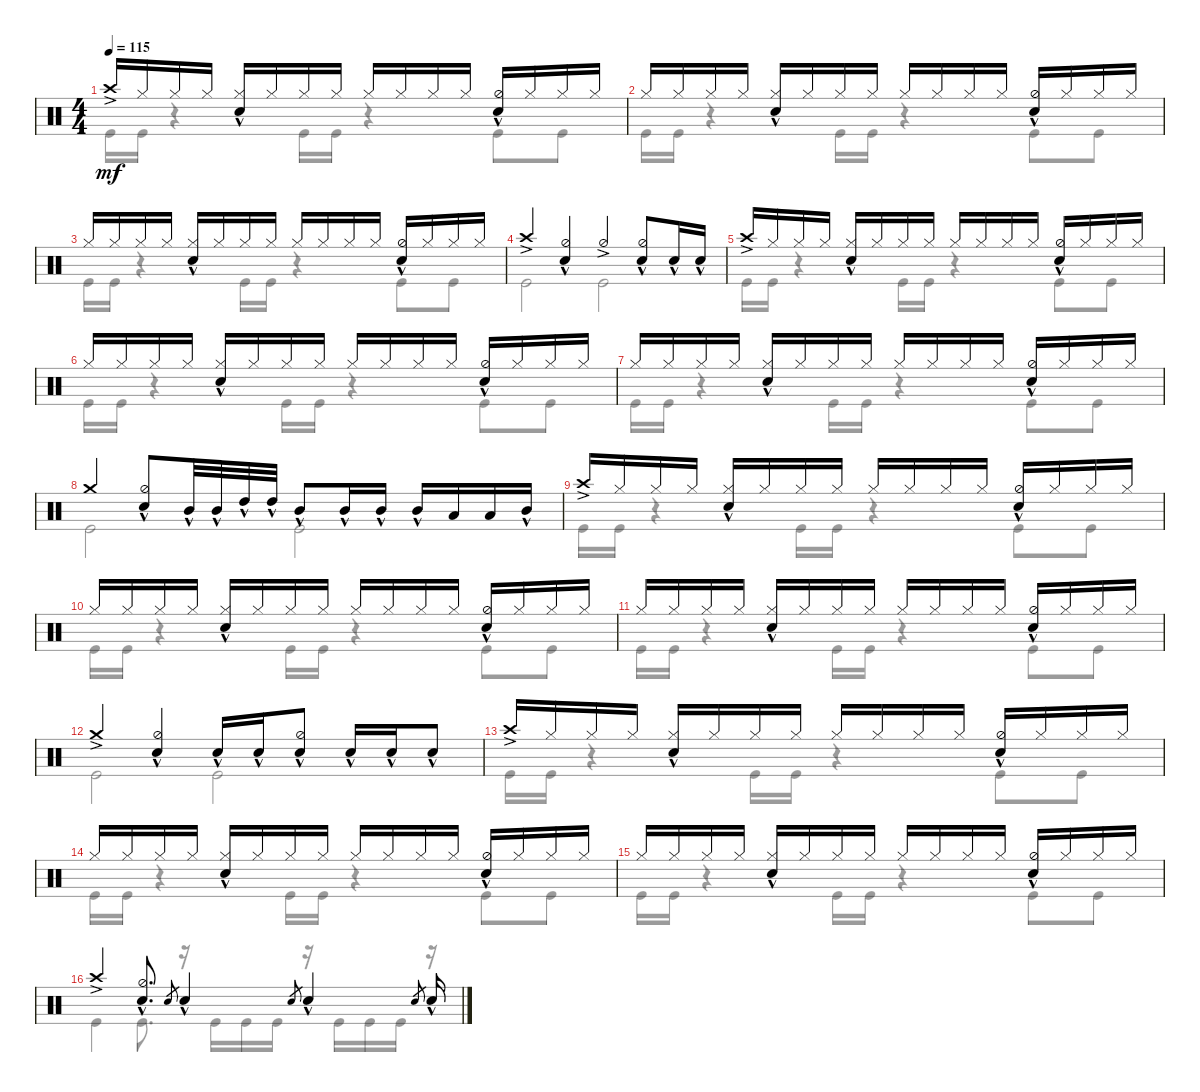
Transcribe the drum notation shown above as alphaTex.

\defaultSystemsLayout 4
\bracketExtendMode groupsimilarinstruments
\singleTrackTrackNamePolicy hidden
\multiTrackTrackNamePolicy hidden
\firstSystemTrackNameOrientation horizontal
\otherSystemsTrackNameOrientation horizontal
\track ("Maksim Udalov" "Drums") {instrument percussion}
\staff {score}
\articulation defaults
\voice
\ts (4 4)
\tempo 115
\clef neutral
\scale
1.02648
\ks c "Crash high (hit)"{ac}.16{dy mf} "Hi-Hat (closed)".16 "Hi-Hat (closed)".16 "Hi-Hat (closed)".16
("Hi-Hat (closed)" "Snare (hit) 2"{hac}).16 "Hi-Hat (closed)".16 "Hi-Hat (closed)".16 "Hi-Hat (closed)".16 "Hi-Hat (closed)".16 "Hi-Hat (closed)".16 "Hi-Hat (closed)".16 "Hi-Hat (closed)".16 ("Snare (hit) 2"{hac} "Hi-Hat (half)").16 "Hi-Hat (closed)".16 "Hi-Hat (closed)".16 "Hi-Hat (closed)".16 |
\scale
0.973518 "Hi-Hat (closed)".16 "Hi-Hat (closed)".16 "Hi-Hat (closed)".16 "Hi-Hat (closed)".16 ("Hi-Hat (closed)" "Snare (hit) 2"{hac}).16 "Hi-Hat (closed)".16 "Hi-Hat (closed)".16 "Hi-Hat (closed)".16 "Hi-Hat (closed)".16 "Hi-Hat (closed)".16 "Hi-Hat (closed)".16 "Hi-Hat (closed)".16 ("Snare (hit) 2"{hac} "Hi-Hat (half)").16 "Hi-Hat (closed)".16 "Hi-Hat (closed)".16 "Hi-Hat (closed)".16 |
\scale
1.02648 "Hi-Hat (closed)".16 "Hi-Hat (closed)".16 "Hi-Hat (closed)".16 "Hi-Hat (closed)".16 ("Hi-Hat (closed)" "Snare (hit) 2"{hac}).16 "Hi-Hat (closed)".16 "Hi-Hat (closed)".16 "Hi-Hat (closed)".16 "Hi-Hat (closed)".16 "Hi-Hat (closed)".16 "Hi-Hat (closed)".16 "Hi-Hat (closed)".16 ("Snare (hit) 2"{hac} "Hi-Hat (half)").16 "Hi-Hat (closed)".16 "Hi-Hat (closed)".16 "Hi-Hat (closed)".16 |
\scale
0.973518 "Crash high (hit)"{ac}.4 ("Snare (hit) 2"{hac} "Hi-Hat (half)").4 "Hi-Hat (half)"{ac}.4 ("Snare (hit) 2"{hac} "Hi-Hat (half)").8 "Snare (hit) 2"{hac}.16 "Snare (hit) 2"{hac}.16 |
\scale
1.02648 "Crash high (hit)"{ac}.16 "Hi-Hat (closed)".16 "Hi-Hat (closed)".16 "Hi-Hat (closed)".16 ("Hi-Hat (closed)" "Snare (hit) 2"{hac}).16 "Hi-Hat (closed)".16 "Hi-Hat (closed)".16 "Hi-Hat (closed)".16 "Hi-Hat (closed)".16 "Hi-Hat (closed)".16 "Hi-Hat (closed)".16 "Hi-Hat (closed)".16 ("Snare (hit) 2"{hac} "Hi-Hat (half)").16 "Hi-Hat (closed)".16 "Hi-Hat (closed)".16 "Hi-Hat (closed)".16 |
\scale
0.973518 "Hi-Hat (closed)".16 "Hi-Hat (closed)".16 "Hi-Hat (closed)".16 "Hi-Hat (closed)".16 ("Hi-Hat (closed)" "Snare (hit) 2"{hac}).16 "Hi-Hat (closed)".16 "Hi-Hat (closed)".16 "Hi-Hat (closed)".16 "Hi-Hat (closed)".16 "Hi-Hat (closed)".16 "Hi-Hat (closed)".16 "Hi-Hat (closed)".16 ("Snare (hit) 2"{hac} "Hi-Hat (half)").16 "Hi-Hat (closed)".16 "Hi-Hat (closed)".16 "Hi-Hat (closed)".16 |
\scale
1.02648 "Hi-Hat (closed)".16 "Hi-Hat (closed)".16 "Hi-Hat (closed)".16 "Hi-Hat (closed)".16 ("Hi-Hat (closed)" "Snare (hit) 2"{hac}).16 "Hi-Hat (closed)".16 "Hi-Hat (closed)".16 "Hi-Hat (closed)".16 "Hi-Hat (closed)".16 "Hi-Hat (closed)".16 "Hi-Hat (closed)".16 "Hi-Hat (closed)".16 ("Snare (hit) 2"{hac} "Hi-Hat (half)").16 "Hi-Hat (closed)".16 "Hi-Hat (closed)".16 "Hi-Hat (closed)".16 |
\scale
0.973518 "Crash medium (hit)".4 ("Hi-Hat (half)" "Snare (hit) 2"{hac}).8 "Mid Tom (hit)"{hac}.32 "Mid Tom (hit)"{hac}.32 "High Tom (hit)"{hac}.32 "High Tom (hit)"{hac}.32 "Mid Tom (hit)"{hac}.8 "Mid Tom (hit)"{hac}.16 "Mid Tom (hit)"{hac}.16 "Mid Tom (hit)"{hac}.16 "Low Tom (hit)".16 "Low Tom (hit)".16 "Mid Tom (hit)"{hac}.16 |
\scale
1.02648 "Crash high (hit)"{ac}.16 "Hi-Hat (closed)".16 "Hi-Hat (closed)".16 "Hi-Hat (closed)".16 ("Hi-Hat (closed)" "Snare (hit) 2"{hac}).16 "Hi-Hat (closed)".16 "Hi-Hat (closed)".16 "Hi-Hat (closed)".16 "Hi-Hat (closed)".16 "Hi-Hat (closed)".16 "Hi-Hat (closed)".16 "Hi-Hat (closed)".16 ("Snare (hit) 2"{hac} "Hi-Hat (half)").16 "Hi-Hat (closed)".16 "Hi-Hat (closed)".16 "Hi-Hat (closed)".16 |
\scale
0.973518 "Hi-Hat (closed)".16 "Hi-Hat (closed)".16 "Hi-Hat (closed)".16 "Hi-Hat (closed)".16 ("Hi-Hat (closed)" "Snare (hit) 2"{hac}).16 "Hi-Hat (closed)".16 "Hi-Hat (closed)".16 "Hi-Hat (closed)".16 "Hi-Hat (closed)".16 "Hi-Hat (closed)".16 "Hi-Hat (closed)".16 "Hi-Hat (closed)".16 ("Snare (hit) 2"{hac} "Hi-Hat (half)").16 "Hi-Hat (closed)".16 "Hi-Hat (closed)".16 "Hi-Hat (closed)".16 |
\scale
1.02648 "Hi-Hat (closed)".16 "Hi-Hat (closed)".16 "Hi-Hat (closed)".16 "Hi-Hat (closed)".16 ("Hi-Hat (closed)" "Snare (hit) 2"{hac}).16 "Hi-Hat (closed)".16 "Hi-Hat (closed)".16 "Hi-Hat (closed)".16 "Hi-Hat (closed)".16 "Hi-Hat (closed)".16 "Hi-Hat (closed)".16 "Hi-Hat (closed)".16 ("Snare (hit) 2"{hac} "Hi-Hat (half)").16 "Hi-Hat (closed)".16 "Hi-Hat (closed)".16 "Hi-Hat (closed)".16 |
\scale
0.973518 "Crash medium (hit)"{ac}.4 ("Hi-Hat (half)" "Snare (hit) 2"{hac}).4 "Snare (hit) 2"{hac}.16 "Snare (hit) 2"{hac}.16 ("Snare (hit) 2"{hac} "Hi-Hat (half)").8 "Snare (hit) 2"{hac}.16 "Snare (hit) 2"{hac}.16 "Snare (hit) 2"{hac}.8 |
\scale
1.02648 "Crash high (hit)"{ac}.16 "Hi-Hat (closed)".16 "Hi-Hat (closed)".16 "Hi-Hat (closed)".16 ("Hi-Hat (closed)" "Snare (hit) 2"{hac}).16 "Hi-Hat (closed)".16 "Hi-Hat (closed)".16 "Hi-Hat (closed)".16 "Hi-Hat (closed)".16 "Hi-Hat (closed)".16 "Hi-Hat (closed)".16 "Hi-Hat (closed)".16 ("Snare (hit) 2"{hac} "Hi-Hat (half)").16 "Hi-Hat (closed)".16 "Hi-Hat (closed)".16 "Hi-Hat (closed)".16 |
\scale
0.973518 "Hi-Hat (closed)".16 "Hi-Hat (closed)".16 "Hi-Hat (closed)".16 "Hi-Hat (closed)".16 ("Hi-Hat (closed)" "Snare (hit) 2"{hac}).16 "Hi-Hat (closed)".16 "Hi-Hat (closed)".16 "Hi-Hat (closed)".16 "Hi-Hat (closed)".16 "Hi-Hat (closed)".16 "Hi-Hat (closed)".16 "Hi-Hat (closed)".16 ("Snare (hit) 2"{hac} "Hi-Hat (half)").16 "Hi-Hat (closed)".16 "Hi-Hat (closed)".16 "Hi-Hat (closed)".16 |
\scale
1.02648 "Hi-Hat (closed)".16 "Hi-Hat (closed)".16 "Hi-Hat (closed)".16 "Hi-Hat (closed)".16 ("Hi-Hat (closed)" "Snare (hit) 2"{hac}).16 "Hi-Hat (closed)".16 "Hi-Hat (closed)".16 "Hi-Hat (closed)".16 "Hi-Hat (closed)".16 "Hi-Hat (closed)".16 "Hi-Hat (closed)".16 "Hi-Hat (closed)".16 ("Snare (hit) 2"{hac} "Hi-Hat (half)").16 "Hi-Hat (closed)".16 "Hi-Hat (closed)".16 "Hi-Hat (closed)".16 |
\scale
0.973518 "Crash high (hit)"{ac}.4 ("Snare (hit) 2"{hac} "Hi-Hat (half)").8{d} "Snare (hit) 2".8{gr} "Snare (hit) 2"{hac}.4 "Snare (hit) 2".8{gr} "Snare (hit) 2"{hac}.4 "Snare (hit) 2".8{gr} "Snare (hit) 2"{hac}.16
\voice
\clef neutral
\ottava regular
\simile none
\scale
1.02648
\ks c "Kick (hit)".16{dy mf} "Kick (hit)".16
r.4 "Kick (hit)".16 "Kick (hit)".16 r.4 "Kick (hit)".8 "Kick (hit)".8 |
\scale
0.973518 "Kick (hit)".16 "Kick (hit)".16 r.4 "Kick (hit)".16 "Kick (hit)".16 r.4 "Kick (hit)".8 "Kick (hit)".8 |
\scale
1.02648 "Kick (hit)".16 "Kick (hit)".16 r.4 "Kick (hit)".16 "Kick (hit)".16 r.4 "Kick (hit)".8 "Kick (hit)".8 |
\scale
0.973518 "Kick (hit)".2 "Kick (hit)".2 |
\scale
1.02648 "Kick (hit)".16 "Kick (hit)".16 r.4 "Kick (hit)".16 "Kick (hit)".16 r.4 "Kick (hit)".8 "Kick (hit)".8 |
\scale
0.973518 "Kick (hit)".16 "Kick (hit)".16 r.4 "Kick (hit)".16 "Kick (hit)".16 r.4 "Kick (hit)".8 "Kick (hit)".8 |
\scale
1.02648 "Kick (hit)".16 "Kick (hit)".16 r.4 "Kick (hit)".16 "Kick (hit)".16 r.4 "Kick (hit)".8 "Kick (hit)".8 |
\scale
0.973518 "Kick (hit)".2 "Kick (hit)".2 |
\scale
1.02648 "Kick (hit)".16 "Kick (hit)".16 r.4 "Kick (hit)".16 "Kick (hit)".16 r.4 "Kick (hit)".8 "Kick (hit)".8 |
\scale
0.973518 "Kick (hit)".16 "Kick (hit)".16 r.4 "Kick (hit)".16 "Kick (hit)".16 r.4 "Kick (hit)".8 "Kick (hit)".8 |
\scale
1.02648 "Kick (hit)".16 "Kick (hit)".16 r.4 "Kick (hit)".16 "Kick (hit)".16 r.4 "Kick (hit)".8 "Kick (hit)".8 |
\scale
0.973518 "Kick (hit)".2 "Kick (hit)".2 |
\scale
1.02648 "Kick (hit)".16 "Kick (hit)".16 r.4 "Kick (hit)".16 "Kick (hit)".16 r.4 "Kick (hit)".8 "Kick (hit)".8 |
\scale
0.973518 "Kick (hit)".16 "Kick (hit)".16 r.4 "Kick (hit)".16 "Kick (hit)".16 r.4 "Kick (hit)".8 "Kick (hit)".8 |
\scale
1.02648 "Kick (hit)".16 "Kick (hit)".16 r.4 "Kick (hit)".16 "Kick (hit)".16 r.4 "Kick (hit)".8 "Kick (hit)".8 |
\scale
0.973518 "Kick (hit)".4 "Kick (hit)".8{d} r.16 "Kick (hit)".16 "Kick (hit)".16 "Kick (hit)".16 r.16 "Kick (hit)".16 "Kick (hit)".16 "Kick (hit)".16 r.16
